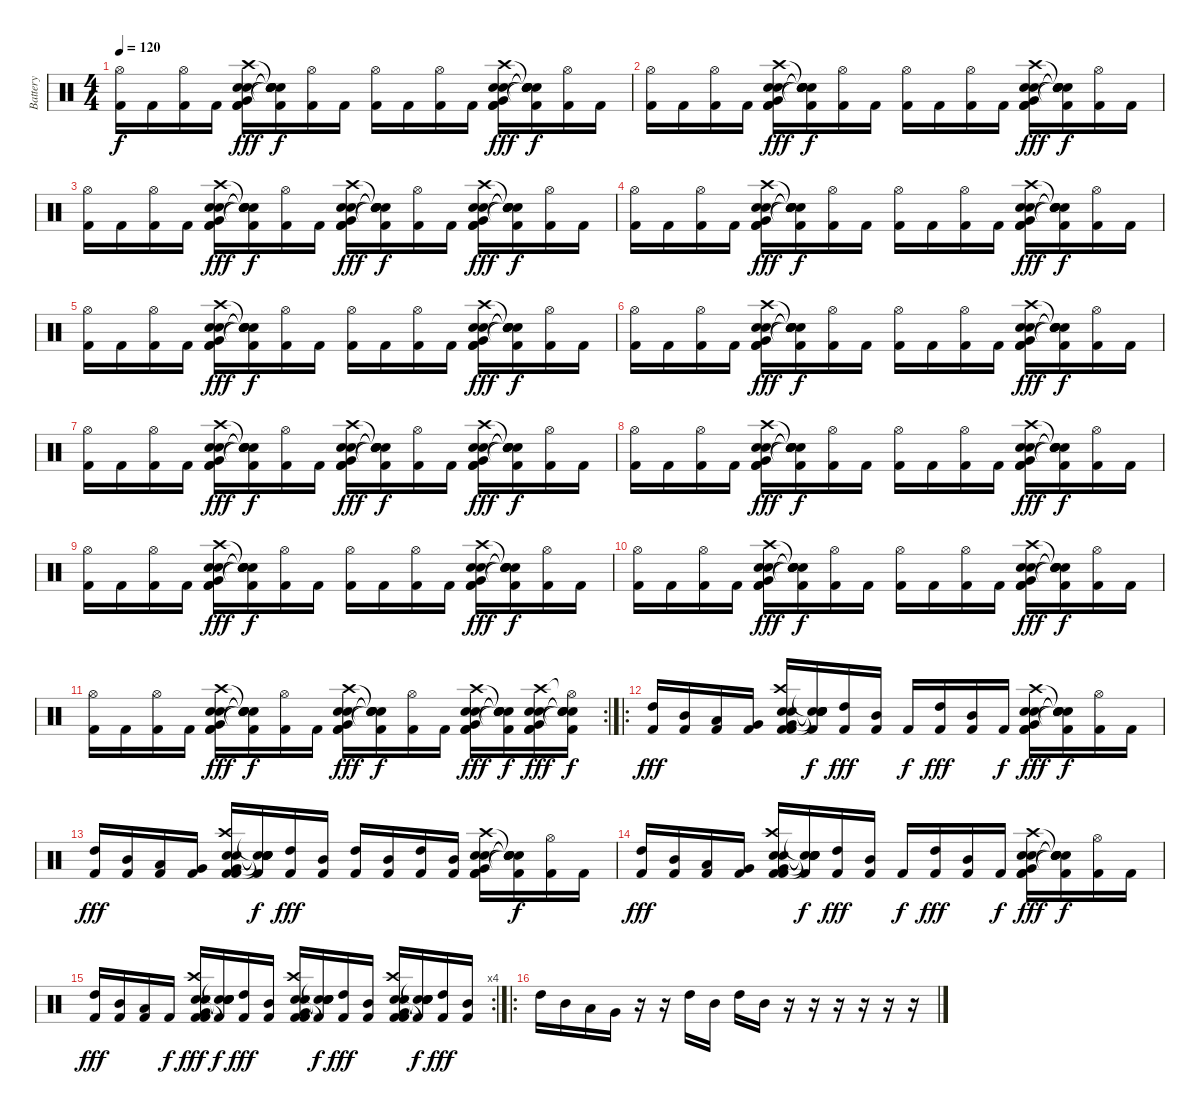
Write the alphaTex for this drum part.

\track ("Battery" "Battery") {instrument percussion}
\staff {score}
\articulation defaults
\ts (4 4)
\tempo 120
\clef neutral
\ks c
("Hi-Hat (open)" "Kick (hit) 2").16{dy f} "Kick (hit) 2".16 ("Hi-Hat (open)" "Kick (hit) 2").16 "Kick (hit) 2".16 ("Crash high (hit)" "Kick (hit) 2" "Electric Snare (hit)" "Very Low Tom (hit)" "Electric Snare (hit)" "Kick (hit) 2").16{dy fff} ("Snare (hit)"{t} "Snare (hit)"{t} "Snare (hit)"{t} "Snare (hit)"{t} "Electric Snare (hit)"{t} "Kick (hit) 2").16{dy f} ("Hi-Hat (open)" "Kick (hit) 2").16 "Kick (hit) 2".16 ("Hi-Hat (open)" "Kick (hit) 2").16 "Kick (hit) 2".16 ("Hi-Hat (open)" "Kick (hit) 2").16 "Kick (hit) 2".16 ("Crash high (hit)" "Kick (hit) 2" "Electric Snare (hit)" "Very Low Tom (hit)" "Electric Snare (hit)" "Kick (hit) 2").16{dy fff} ("Snare (hit)"{t} "Snare (hit)"{t} "Snare (hit)"{t} "Snare (hit)"{t} "Snare (hit)"{t} "Kick (hit) 2").16{dy f} ("Hi-Hat (open)" "Kick (hit) 2").16 "Kick (hit) 2".16 |
("Hi-Hat (open)" "Kick (hit) 2").16 "Kick (hit) 2".16 ("Hi-Hat (open)" "Kick (hit) 2").16 "Kick (hit) 2".16 ("Crash high (hit)" "Kick (hit) 2" "Electric Snare (hit)" "Very Low Tom (hit)" "Electric Snare (hit)" "Kick (hit) 2").16{dy fff} ("Snare (hit)"{t} "Snare (hit)"{t} "Snare (hit)"{t} "Snare (hit)"{t} "Electric Snare (hit)"{t} "Kick (hit) 2").16{dy f} ("Hi-Hat (open)" "Kick (hit) 2").16 "Kick (hit) 2".16 ("Hi-Hat (open)" "Kick (hit) 2").16 "Kick (hit) 2".16 ("Hi-Hat (open)" "Kick (hit) 2").16 "Kick (hit) 2".16 ("Crash high (hit)" "Kick (hit) 2" "Electric Snare (hit)" "Very Low Tom (hit)" "Electric Snare (hit)" "Kick (hit) 2").16{dy fff} ("Snare (hit)"{t} "Snare (hit)"{t} "Snare (hit)"{t} "Snare (hit)"{t} "Snare (hit)"{t} "Kick (hit) 2").16{dy f} ("Hi-Hat (open)" "Kick (hit) 2").16 "Kick (hit) 2".16 |
("Hi-Hat (open)" "Kick (hit) 2").16 "Kick (hit) 2".16 ("Hi-Hat (open)" "Kick (hit) 2").16 "Kick (hit) 2".16 ("Crash high (hit)" "Kick (hit) 2" "Electric Snare (hit)" "Very Low Tom (hit)" "Electric Snare (hit)" "Kick (hit) 2").16{dy fff} ("Snare (hit)"{t} "Snare (hit)"{t} "Snare (hit)"{t} "Snare (hit)"{t} "Electric Snare (hit)"{t} "Kick (hit) 2").16{dy f} ("Hi-Hat (open)" "Kick (hit) 2").16 "Kick (hit) 2".16 ("Crash high (hit)" "Kick (hit) 2" "Electric Snare (hit)" "Very Low Tom (hit)" "Electric Snare (hit)" "Kick (hit) 2").16{dy fff} ("Snare (hit)"{t} "Snare (hit)"{t} "Snare (hit)"{t} "Snare (hit)"{t} "Snare (hit)"{t} "Kick (hit) 2").16{dy f} ("Hi-Hat (open)" "Kick (hit) 2").16 "Kick (hit) 2".16 ("Crash high (hit)" "Kick (hit) 2" "Electric Snare (hit)" "Very Low Tom (hit)" "Electric Snare (hit)" "Kick (hit) 2").16{dy fff} ("Snare (hit)"{t} "Snare (hit)"{t} "Snare (hit)"{t} "Snare (hit)"{t} "Snare (hit)"{t} "Kick (hit) 2").16{dy f} ("Hi-Hat (open)" "Kick (hit) 2").16 "Kick (hit) 2".16 |
("Hi-Hat (open)" "Kick (hit) 2").16 "Kick (hit) 2".16 ("Hi-Hat (open)" "Kick (hit) 2").16 "Kick (hit) 2".16 ("Crash high (hit)" "Kick (hit) 2" "Electric Snare (hit)" "Very Low Tom (hit)" "Electric Snare (hit)" "Kick (hit) 2").16{dy fff} ("Snare (hit)"{t} "Snare (hit)"{t} "Snare (hit)"{t} "Snare (hit)"{t} "Electric Snare (hit)"{t} "Kick (hit) 2").16{dy f} ("Hi-Hat (open)" "Kick (hit) 2").16 "Kick (hit) 2".16 ("Hi-Hat (open)" "Kick (hit) 2").16 "Kick (hit) 2".16 ("Hi-Hat (open)" "Kick (hit) 2").16 "Kick (hit) 2".16 ("Crash high (hit)" "Kick (hit) 2" "Electric Snare (hit)" "Very Low Tom (hit)" "Electric Snare (hit)" "Kick (hit) 2").16{dy fff} ("Snare (hit)"{t} "Snare (hit)"{t} "Snare (hit)"{t} "Snare (hit)"{t} "Snare (hit)"{t} "Kick (hit) 2").16{dy f} ("Hi-Hat (open)" "Kick (hit) 2").16 "Kick (hit) 2".16 |
("Hi-Hat (open)" "Kick (hit) 2").16 "Kick (hit) 2".16 ("Hi-Hat (open)" "Kick (hit) 2").16 "Kick (hit) 2".16 ("Crash high (hit)" "Kick (hit) 2" "Electric Snare (hit)" "Very Low Tom (hit)" "Electric Snare (hit)" "Kick (hit) 2").16{dy fff} ("Snare (hit)"{t} "Snare (hit)"{t} "Snare (hit)"{t} "Snare (hit)"{t} "Electric Snare (hit)"{t} "Kick (hit) 2").16{dy f} ("Hi-Hat (open)" "Kick (hit) 2").16 "Kick (hit) 2".16 ("Hi-Hat (open)" "Kick (hit) 2").16 "Kick (hit) 2".16 ("Hi-Hat (open)" "Kick (hit) 2").16 "Kick (hit) 2".16 ("Crash high (hit)" "Kick (hit) 2" "Electric Snare (hit)" "Very Low Tom (hit)" "Electric Snare (hit)" "Kick (hit) 2").16{dy fff} ("Snare (hit)"{t} "Snare (hit)"{t} "Snare (hit)"{t} "Snare (hit)"{t} "Snare (hit)"{t} "Kick (hit) 2").16{dy f} ("Hi-Hat (open)" "Kick (hit) 2").16 "Kick (hit) 2".16 |
("Hi-Hat (open)" "Kick (hit) 2").16 "Kick (hit) 2".16 ("Hi-Hat (open)" "Kick (hit) 2").16 "Kick (hit) 2".16 ("Crash high (hit)" "Kick (hit) 2" "Electric Snare (hit)" "Very Low Tom (hit)" "Electric Snare (hit)" "Kick (hit) 2").16{dy fff} ("Snare (hit)"{t} "Snare (hit)"{t} "Snare (hit)"{t} "Snare (hit)"{t} "Electric Snare (hit)"{t} "Kick (hit) 2").16{dy f} ("Hi-Hat (open)" "Kick (hit) 2").16 "Kick (hit) 2".16 ("Hi-Hat (open)" "Kick (hit) 2").16 "Kick (hit) 2".16 ("Hi-Hat (open)" "Kick (hit) 2").16 "Kick (hit) 2".16 ("Crash high (hit)" "Kick (hit) 2" "Electric Snare (hit)" "Very Low Tom (hit)" "Electric Snare (hit)" "Kick (hit) 2").16{dy fff} ("Snare (hit)"{t} "Snare (hit)"{t} "Snare (hit)"{t} "Snare (hit)"{t} "Snare (hit)"{t} "Kick (hit) 2").16{dy f} ("Hi-Hat (open)" "Kick (hit) 2").16 "Kick (hit) 2".16 |
("Hi-Hat (open)" "Kick (hit) 2").16 "Kick (hit) 2".16 ("Hi-Hat (open)" "Kick (hit) 2").16 "Kick (hit) 2".16 ("Crash high (hit)" "Kick (hit) 2" "Electric Snare (hit)" "Very Low Tom (hit)" "Electric Snare (hit)" "Kick (hit) 2").16{dy fff} ("Snare (hit)"{t} "Snare (hit)"{t} "Snare (hit)"{t} "Snare (hit)"{t} "Electric Snare (hit)"{t} "Kick (hit) 2").16{dy f} ("Hi-Hat (open)" "Kick (hit) 2").16 "Kick (hit) 2".16 ("Crash high (hit)" "Kick (hit) 2" "Electric Snare (hit)" "Very Low Tom (hit)" "Electric Snare (hit)" "Kick (hit) 2").16{dy fff} ("Snare (hit)"{t} "Snare (hit)"{t} "Snare (hit)"{t} "Snare (hit)"{t} "Snare (hit)"{t} "Kick (hit) 2").16{dy f} ("Hi-Hat (open)" "Kick (hit) 2").16 "Kick (hit) 2".16 ("Crash high (hit)" "Kick (hit) 2" "Electric Snare (hit)" "Very Low Tom (hit)" "Electric Snare (hit)" "Kick (hit) 2").16{dy fff} ("Snare (hit)"{t} "Snare (hit)"{t} "Snare (hit)"{t} "Snare (hit)"{t} "Snare (hit)"{t} "Kick (hit) 2").16{dy f} ("Hi-Hat (open)" "Kick (hit) 2").16 "Kick (hit) 2".16 |
("Hi-Hat (open)" "Kick (hit) 2").16 "Kick (hit) 2".16 ("Hi-Hat (open)" "Kick (hit) 2").16 "Kick (hit) 2".16 ("Crash high (hit)" "Kick (hit) 2" "Electric Snare (hit)" "Very Low Tom (hit)" "Electric Snare (hit)" "Kick (hit) 2").16{dy fff} ("Snare (hit)"{t} "Snare (hit)"{t} "Snare (hit)"{t} "Snare (hit)"{t} "Electric Snare (hit)"{t} "Kick (hit) 2").16{dy f} ("Hi-Hat (open)" "Kick (hit) 2").16 "Kick (hit) 2".16 ("Hi-Hat (open)" "Kick (hit) 2").16 "Kick (hit) 2".16 ("Hi-Hat (open)" "Kick (hit) 2").16 "Kick (hit) 2".16 ("Crash high (hit)" "Kick (hit) 2" "Electric Snare (hit)" "Very Low Tom (hit)" "Electric Snare (hit)" "Kick (hit) 2").16{dy fff} ("Snare (hit)"{t} "Snare (hit)"{t} "Snare (hit)"{t} "Snare (hit)"{t} "Snare (hit)"{t} "Kick (hit) 2").16{dy f} ("Hi-Hat (open)" "Kick (hit) 2").16 "Kick (hit) 2".16 |
("Hi-Hat (open)" "Kick (hit) 2").16 "Kick (hit) 2".16 ("Hi-Hat (open)" "Kick (hit) 2").16 "Kick (hit) 2".16 ("Crash high (hit)" "Kick (hit) 2" "Electric Snare (hit)" "Very Low Tom (hit)" "Electric Snare (hit)" "Kick (hit) 2").16{dy fff} ("Snare (hit)"{t} "Snare (hit)"{t} "Snare (hit)"{t} "Snare (hit)"{t} "Electric Snare (hit)"{t} "Kick (hit) 2").16{dy f} ("Hi-Hat (open)" "Kick (hit) 2").16 "Kick (hit) 2".16 ("Hi-Hat (open)" "Kick (hit) 2").16 "Kick (hit) 2".16 ("Hi-Hat (open)" "Kick (hit) 2").16 "Kick (hit) 2".16 ("Crash high (hit)" "Kick (hit) 2" "Electric Snare (hit)" "Very Low Tom (hit)" "Electric Snare (hit)" "Kick (hit) 2").16{dy fff} ("Snare (hit)"{t} "Snare (hit)"{t} "Snare (hit)"{t} "Snare (hit)"{t} "Snare (hit)"{t} "Kick (hit) 2").16{dy f} ("Hi-Hat (open)" "Kick (hit) 2").16 "Kick (hit) 2".16 |
("Hi-Hat (open)" "Kick (hit) 2").16 "Kick (hit) 2".16 ("Hi-Hat (open)" "Kick (hit) 2").16 "Kick (hit) 2".16 ("Crash high (hit)" "Kick (hit) 2" "Electric Snare (hit)" "Very Low Tom (hit)" "Electric Snare (hit)" "Kick (hit) 2").16{dy fff} ("Snare (hit)"{t} "Snare (hit)"{t} "Snare (hit)"{t} "Snare (hit)"{t} "Electric Snare (hit)"{t} "Kick (hit) 2").16{dy f} ("Hi-Hat (open)" "Kick (hit) 2").16 "Kick (hit) 2".16 ("Hi-Hat (open)" "Kick (hit) 2").16 "Kick (hit) 2".16 ("Hi-Hat (open)" "Kick (hit) 2").16 "Kick (hit) 2".16 ("Crash high (hit)" "Kick (hit) 2" "Electric Snare (hit)" "Very Low Tom (hit)" "Electric Snare (hit)" "Kick (hit) 2").16{dy fff} ("Snare (hit)"{t} "Snare (hit)"{t} "Snare (hit)"{t} "Snare (hit)"{t} "Snare (hit)"{t} "Kick (hit) 2").16{dy f} ("Hi-Hat (open)" "Kick (hit) 2").16 "Kick (hit) 2".16 |
\rc 2
("Hi-Hat (open)" "Kick (hit) 2").16 "Kick (hit) 2".16 ("Hi-Hat (open)" "Kick (hit) 2").16 "Kick (hit) 2".16 ("Crash high (hit)" "Kick (hit) 2" "Electric Snare (hit)" "Very Low Tom (hit)" "Electric Snare (hit)" "Kick (hit) 2").16{dy fff} ("Snare (hit)"{t} "Snare (hit)"{t} "Snare (hit)"{t} "Snare (hit)"{t} "Electric Snare (hit)"{t} "Kick (hit) 2").16{dy f} ("Hi-Hat (open)" "Kick (hit) 2").16 "Kick (hit) 2".16 ("Crash high (hit)" "Kick (hit) 2" "Electric Snare (hit)" "Very Low Tom (hit)" "Electric Snare (hit)" "Kick (hit) 2").16{dy fff} ("Snare (hit)"{t} "Snare (hit)"{t} "Snare (hit)"{t} "Snare (hit)"{t} "Snare (hit)"{t} "Kick (hit) 2").16{dy f} ("Hi-Hat (open)" "Kick (hit) 2").16 "Kick (hit) 2".16 ("Crash high (hit)" "Kick (hit) 2" "Electric Snare (hit)" "Very Low Tom (hit)" "Electric Snare (hit)" "Kick (hit) 2").16{dy fff} ("Snare (hit)"{t} "Snare (hit)"{t} "Snare (hit)"{t} "Snare (hit)"{t} "Snare (hit)"{t} "Kick (hit) 2").16{dy f} ("Crash high (hit)" "Kick (hit) 2" "Electric Snare (hit)" "Very Low Tom (hit)" "Electric Snare (hit)" "Kick (hit) 2").16{dy fff} ("Hi-Hat (open)"{t} "Snare (hit)"{t} "Snare (hit)"{t} "Snare (hit)"{t} "Snare (hit)"{t} "Kick (hit) 2").16{dy f} |
\ro
("High Tom (hit)" "Kick (hit) 2").16{dy fff} ("Mid Tom (hit)" "Kick (hit) 2").16 ("Low Tom (hit)" "Kick (hit) 2").16 ("Very Low Tom (hit)" "Kick (hit) 2").16 ("Crash high (hit)" "Kick (hit) 2" "Electric Snare (hit)" "Very Low Tom (hit)" "Electric Snare (hit)" "Kick (hit) 2").16 ("Snare (hit)"{t} "Snare (hit)"{t} "Snare (hit)"{t} "Snare (hit)"{t} "Electric Snare (hit)"{t} "Kick (hit) 2").16{dy f} ("High Tom (hit)" "Kick (hit) 2").16{dy fff} ("Mid Tom (hit)" "Kick (hit) 2").16 "Kick (hit) 2".16{dy f} ("High Tom (hit)" "Kick (hit) 2").16{dy fff} ("Mid Tom (hit)" "Kick (hit) 2").16 "Kick (hit) 2".16{dy f} ("Crash high (hit)" "Kick (hit) 2" "Electric Snare (hit)" "Very Low Tom (hit)" "Electric Snare (hit)" "Kick (hit) 2").16{dy fff} ("Snare (hit)"{t} "Snare (hit)"{t} "Snare (hit)"{t} "Snare (hit)"{t} "Snare (hit)"{t} "Kick (hit) 2").16{dy f} ("Hi-Hat (open)" "Kick (hit) 2").16 "Kick (hit) 2".16 |
("High Tom (hit)" "Kick (hit) 2").16{dy fff} ("Mid Tom (hit)" "Kick (hit) 2").16 ("Low Tom (hit)" "Kick (hit) 2").16 ("Very Low Tom (hit)" "Kick (hit) 2").16 ("Crash high (hit)" "Kick (hit) 2" "Electric Snare (hit)" "Very Low Tom (hit)" "Electric Snare (hit)" "Kick (hit) 2").16 ("Snare (hit)"{t} "Snare (hit)"{t} "Snare (hit)"{t} "Snare (hit)"{t} "Electric Snare (hit)"{t} "Kick (hit) 2").16{dy f} ("High Tom (hit)" "Kick (hit) 2").16{dy fff} ("Mid Tom (hit)" "Kick (hit) 2").16 ("High Tom (hit)" "Kick (hit) 2").16 ("Mid Tom (hit)" "Kick (hit) 2").16 ("High Tom (hit)" "Kick (hit) 2").16 ("Mid Tom (hit)" "Kick (hit) 2").16 ("Crash high (hit)" "Kick (hit) 2" "Electric Snare (hit)" "Very Low Tom (hit)" "Electric Snare (hit)" "Kick (hit) 2").16 ("Snare (hit)"{t} "Snare (hit)"{t} "Snare (hit)"{t} "Snare (hit)"{t} "Snare (hit)"{t} "Kick (hit) 2").16{dy f} ("Hi-Hat (open)" "Kick (hit) 2").16 "Kick (hit) 2".16 |
("High Tom (hit)" "Kick (hit) 2").16{dy fff} ("Mid Tom (hit)" "Kick (hit) 2").16 ("Low Tom (hit)" "Kick (hit) 2").16 ("Very Low Tom (hit)" "Kick (hit) 2").16 ("Crash high (hit)" "Kick (hit) 2" "Electric Snare (hit)" "Very Low Tom (hit)" "Electric Snare (hit)" "Kick (hit) 2").16 ("Snare (hit)"{t} "Snare (hit)"{t} "Snare (hit)"{t} "Snare (hit)"{t} "Electric Snare (hit)"{t} "Kick (hit) 2").16{dy f} ("High Tom (hit)" "Kick (hit) 2").16{dy fff} ("Mid Tom (hit)" "Kick (hit) 2").16 "Kick (hit) 2".16{dy f} ("High Tom (hit)" "Kick (hit) 2").16{dy fff} ("Mid Tom (hit)" "Kick (hit) 2").16 "Kick (hit) 2".16{dy f} ("Crash high (hit)" "Kick (hit) 2" "Electric Snare (hit)" "Very Low Tom (hit)" "Electric Snare (hit)" "Kick (hit) 2").16{dy fff} ("Snare (hit)"{t} "Snare (hit)"{t} "Snare (hit)"{t} "Snare (hit)"{t} "Snare (hit)"{t} "Kick (hit) 2").16{dy f} ("Hi-Hat (open)" "Kick (hit) 2").16 "Kick (hit) 2".16 |
\rc 4
("High Tom (hit)" "Kick (hit) 2").16{dy fff} ("Mid Tom (hit)" "Kick (hit) 2").16 ("Low Tom (hit)" "Kick (hit) 2").16 "Kick (hit) 2".16{dy f} ("Crash high (hit)" "Kick (hit) 2" "Electric Snare (hit)" "Very Low Tom (hit)" "Electric Snare (hit)" "Kick (hit) 2").16{dy fff} ("Snare (hit)"{t} "Snare (hit)"{t} "Snare (hit)"{t} "Snare (hit)"{t} "Electric Snare (hit)"{t} "Kick (hit) 2").16{dy f} ("High Tom (hit)" "Kick (hit) 2").16{dy fff} ("Mid Tom (hit)" "Kick (hit) 2").16 ("Crash high (hit)" "Kick (hit) 2" "Electric Snare (hit)" "Very Low Tom (hit)" "Electric Snare (hit)" "Kick (hit) 2").16 ("Snare (hit)"{t} "Snare (hit)"{t} "Snare (hit)"{t} "Snare (hit)"{t} "Snare (hit)"{t} "Kick (hit) 2").16{dy f} ("High Tom (hit)" "Kick (hit) 2").16{dy fff} ("Mid Tom (hit)" "Kick (hit) 2").16 ("Crash high (hit)" "Kick (hit) 2" "Electric Snare (hit)" "Very Low Tom (hit)" "Electric Snare (hit)" "Kick (hit) 2").16 ("Snare (hit)"{t} "Snare (hit)"{t} "Snare (hit)"{t} "Snare (hit)"{t} "Snare (hit)"{t} "Kick (hit) 2").16{dy f} ("High Tom (hit)" "Kick (hit) 2").16{dy fff} ("Mid Tom (hit)" "Kick (hit) 2").16 |
\ro "High Tom (hit)".16 "Mid Tom (hit)".16 "Low Tom (hit)".16 "Very Low Tom (hit)".16
r.16 r.16 "High Tom (hit)".16 "Mid Tom (hit)".16 "High Tom (hit)".16 "Mid Tom (hit)".16 r.16 r.16 r.16 r.16 r.16 r.16
